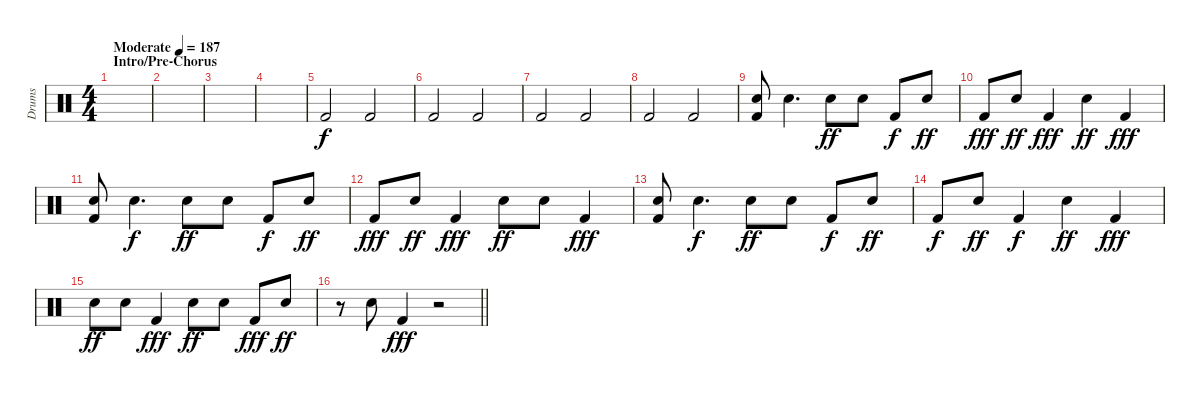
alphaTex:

\track ("Drums" "Drums") {instrument percussion}
\staff {score}
\articulation defaults
\ts (4 4)
\section ("" "Intro/Pre-Chorus")
\tempo (187 "Moderate")
\clef neutral
\ks c
|
|
|
|
"Kick (hit) 2".2 "Kick (hit) 2".2 |
"Kick (hit) 2".2 "Kick (hit) 2".2 |
"Kick (hit) 2".2 "Kick (hit) 2".2 |
"Kick (hit) 2".2 "Kick (hit) 2".2 |
("Snare (hit) 2" "Kick (hit) 2").8 "Snare (hit) 2".4{d dy f} "Snare (hit) 2".8{dy ff} "Snare (hit) 2".8 "Kick (hit) 2".8{dy f} "Snare (hit) 2".8{dy ff} |
"Kick (hit) 2".8{dy fff} "Snare (hit) 2".8{dy ff} "Kick (hit) 2".4{dy fff} "Snare (hit) 2".4{dy ff} "Kick (hit) 2".4{dy fff} |
("Snare (hit) 2" "Kick (hit) 2").8 "Snare (hit) 2".4{d dy f} "Snare (hit) 2".8{dy ff} "Snare (hit) 2".8 "Kick (hit) 2".8{dy f} "Snare (hit) 2".8{dy ff} |
"Kick (hit) 2".8{dy fff} "Snare (hit) 2".8{dy ff} "Kick (hit) 2".4{dy fff} "Snare (hit) 2".8{dy ff} "Snare (hit) 2".8 "Kick (hit) 2".4{dy fff} |
("Snare (hit) 2" "Kick (hit) 2").8 "Snare (hit) 2".4{d dy f} "Snare (hit) 2".8{dy ff} "Snare (hit) 2".8 "Kick (hit) 2".8{dy f} "Snare (hit) 2".8{dy ff} |
"Kick (hit) 2".8{dy f} "Snare (hit) 2".8{dy ff} "Kick (hit) 2".4{dy f} "Snare (hit) 2".4{dy ff} "Kick (hit) 2".4{dy fff} |
"Snare (hit) 2".8{dy ff} "Snare (hit) 2".8 "Kick (hit) 2".4{dy fff} "Snare (hit) 2".8{dy ff} "Snare (hit) 2".8 "Kick (hit) 2".8{dy fff} "Snare (hit) 2".8{dy ff} |
\barLineRight lightlight
r.8 "Snare (hit) 2".8 "Kick (hit) 2".4{dy fff} r.2
